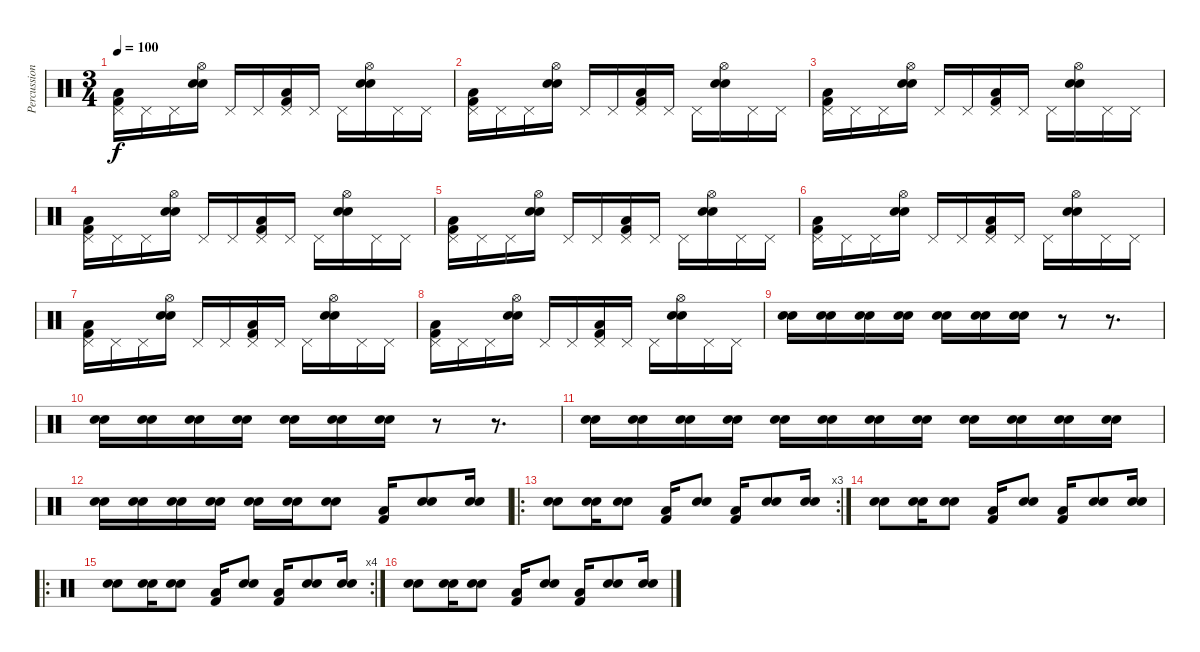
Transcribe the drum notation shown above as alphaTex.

\track ("Percussions" "Percussion") {instrument percussion}
\staff {score}
\articulation defaults
\ts (3 4)
\tempo 100
\clef neutral
\ks c
("Pedal Hi-Hat (hit)" "Kick (hit) 2" "Low Floor Tom (hit)").16{dy f} "Pedal Hi-Hat (hit)".16 "Pedal Hi-Hat (hit)".16 ("Hi-Hat (open)" "Snare (hit) 2" "Electric Snare (hit)").16 "Pedal Hi-Hat (hit)".16 "Pedal Hi-Hat (hit)".16 ("Pedal Hi-Hat (hit)" "Kick (hit) 2" "Low Floor Tom (hit)").16 "Pedal Hi-Hat (hit)".16 "Pedal Hi-Hat (hit)".16 ("Hi-Hat (open)" "Snare (hit) 2" "Electric Snare (hit)").16 "Pedal Hi-Hat (hit)".16 "Pedal Hi-Hat (hit)".16 |
("Pedal Hi-Hat (hit)" "Kick (hit) 2" "Low Floor Tom (hit)").16 "Pedal Hi-Hat (hit)".16 "Pedal Hi-Hat (hit)".16 ("Hi-Hat (open)" "Snare (hit) 2" "Electric Snare (hit)").16 "Pedal Hi-Hat (hit)".16 "Pedal Hi-Hat (hit)".16 ("Pedal Hi-Hat (hit)" "Kick (hit) 2" "Low Floor Tom (hit)").16 "Pedal Hi-Hat (hit)".16 "Pedal Hi-Hat (hit)".16 ("Hi-Hat (open)" "Snare (hit) 2" "Electric Snare (hit)").16 "Pedal Hi-Hat (hit)".16 "Pedal Hi-Hat (hit)".16 |
("Pedal Hi-Hat (hit)" "Kick (hit) 2" "Low Floor Tom (hit)").16 "Pedal Hi-Hat (hit)".16 "Pedal Hi-Hat (hit)".16 ("Hi-Hat (open)" "Snare (hit) 2" "Electric Snare (hit)").16 "Pedal Hi-Hat (hit)".16 "Pedal Hi-Hat (hit)".16 ("Pedal Hi-Hat (hit)" "Kick (hit) 2" "Low Floor Tom (hit)").16 "Pedal Hi-Hat (hit)".16 "Pedal Hi-Hat (hit)".16 ("Hi-Hat (open)" "Snare (hit) 2" "Electric Snare (hit)").16 "Pedal Hi-Hat (hit)".16 "Pedal Hi-Hat (hit)".16 |
("Pedal Hi-Hat (hit)" "Kick (hit) 2" "Low Floor Tom (hit)").16 "Pedal Hi-Hat (hit)".16 "Pedal Hi-Hat (hit)".16 ("Hi-Hat (open)" "Snare (hit) 2" "Electric Snare (hit)").16 "Pedal Hi-Hat (hit)".16 "Pedal Hi-Hat (hit)".16 ("Pedal Hi-Hat (hit)" "Kick (hit) 2" "Low Floor Tom (hit)").16 "Pedal Hi-Hat (hit)".16 "Pedal Hi-Hat (hit)".16 ("Hi-Hat (open)" "Snare (hit) 2" "Electric Snare (hit)").16 "Pedal Hi-Hat (hit)".16 "Pedal Hi-Hat (hit)".16 |
("Pedal Hi-Hat (hit)" "Kick (hit) 2" "Low Floor Tom (hit)").16 "Pedal Hi-Hat (hit)".16 "Pedal Hi-Hat (hit)".16 ("Hi-Hat (open)" "Snare (hit) 2" "Electric Snare (hit)").16 "Pedal Hi-Hat (hit)".16 "Pedal Hi-Hat (hit)".16 ("Pedal Hi-Hat (hit)" "Kick (hit) 2" "Low Floor Tom (hit)").16 "Pedal Hi-Hat (hit)".16 "Pedal Hi-Hat (hit)".16 ("Hi-Hat (open)" "Snare (hit) 2" "Electric Snare (hit)").16 "Pedal Hi-Hat (hit)".16 "Pedal Hi-Hat (hit)".16 |
("Pedal Hi-Hat (hit)" "Kick (hit) 2" "Low Floor Tom (hit)").16 "Pedal Hi-Hat (hit)".16 "Pedal Hi-Hat (hit)".16 ("Hi-Hat (open)" "Snare (hit) 2" "Electric Snare (hit)").16 "Pedal Hi-Hat (hit)".16 "Pedal Hi-Hat (hit)".16 ("Pedal Hi-Hat (hit)" "Kick (hit) 2" "Low Floor Tom (hit)").16 "Pedal Hi-Hat (hit)".16 "Pedal Hi-Hat (hit)".16 ("Hi-Hat (open)" "Snare (hit) 2" "Electric Snare (hit)").16 "Pedal Hi-Hat (hit)".16 "Pedal Hi-Hat (hit)".16 |
("Pedal Hi-Hat (hit)" "Kick (hit) 2" "Low Floor Tom (hit)").16 "Pedal Hi-Hat (hit)".16 "Pedal Hi-Hat (hit)".16 ("Hi-Hat (open)" "Snare (hit) 2" "Electric Snare (hit)").16 "Pedal Hi-Hat (hit)".16 "Pedal Hi-Hat (hit)".16 ("Pedal Hi-Hat (hit)" "Kick (hit) 2" "Low Floor Tom (hit)").16 "Pedal Hi-Hat (hit)".16 "Pedal Hi-Hat (hit)".16 ("Hi-Hat (open)" "Snare (hit) 2" "Electric Snare (hit)").16 "Pedal Hi-Hat (hit)".16 "Pedal Hi-Hat (hit)".16 |
("Pedal Hi-Hat (hit)" "Kick (hit) 2" "Low Floor Tom (hit)").16 "Pedal Hi-Hat (hit)".16 "Pedal Hi-Hat (hit)".16 ("Hi-Hat (open)" "Snare (hit) 2" "Electric Snare (hit)").16 "Pedal Hi-Hat (hit)".16 "Pedal Hi-Hat (hit)".16 ("Pedal Hi-Hat (hit)" "Kick (hit) 2" "Low Floor Tom (hit)").16 "Pedal Hi-Hat (hit)".16 "Pedal Hi-Hat (hit)".16 ("Hi-Hat (open)" "Snare (hit) 2" "Electric Snare (hit)").16 "Pedal Hi-Hat (hit)".16 "Pedal Hi-Hat (hit)".16 |
("Snare (hit) 2" "Electric Snare (hit)").16 ("Snare (hit) 2" "Electric Snare (hit)").16 ("Snare (hit) 2" "Electric Snare (hit)").16 ("Snare (hit) 2" "Electric Snare (hit)").16 ("Snare (hit) 2" "Electric Snare (hit)").16 ("Snare (hit) 2" "Electric Snare (hit)").16 ("Snare (hit) 2" "Electric Snare (hit)").16 r.8 r.8{d} |
("Snare (hit) 2" "Electric Snare (hit)").16 ("Snare (hit) 2" "Electric Snare (hit)").16 ("Snare (hit) 2" "Electric Snare (hit)").16 ("Snare (hit) 2" "Electric Snare (hit)").16 ("Snare (hit) 2" "Electric Snare (hit)").16 ("Snare (hit) 2" "Electric Snare (hit)").16 ("Snare (hit) 2" "Electric Snare (hit)").16 r.8 r.8{d} |
("Snare (hit) 2" "Electric Snare (hit)").16 ("Snare (hit) 2" "Electric Snare (hit)").16 ("Snare (hit) 2" "Electric Snare (hit)").16 ("Snare (hit) 2" "Electric Snare (hit)").16 ("Snare (hit) 2" "Electric Snare (hit)").16 ("Snare (hit) 2" "Electric Snare (hit)").16 ("Snare (hit) 2" "Electric Snare (hit)").16 ("Snare (hit) 2" "Electric Snare (hit)").16 ("Snare (hit) 2" "Electric Snare (hit)").16 ("Snare (hit) 2" "Electric Snare (hit)").16 ("Snare (hit) 2" "Electric Snare (hit)").16 ("Snare (hit) 2" "Electric Snare (hit)").16 |
("Snare (hit) 2" "Electric Snare (hit)").16 ("Snare (hit) 2" "Electric Snare (hit)").16 ("Snare (hit) 2" "Electric Snare (hit)").16 ("Snare (hit) 2" "Electric Snare (hit)").16 ("Snare (hit) 2" "Electric Snare (hit)").16 ("Snare (hit) 2" "Electric Snare (hit)").16 ("Snare (hit) 2" "Electric Snare (hit)").8 ("Kick (hit) 2" "Low Floor Tom (hit)").16 ("Snare (hit) 2" "Electric Snare (hit)").8 ("Snare (hit) 2" "Electric Snare (hit)").16 |
\ro
\rc 3
("Snare (hit) 2" "Electric Snare (hit)").8 ("Snare (hit) 2" "Electric Snare (hit)").16 ("Snare (hit) 2" "Electric Snare (hit)").8 ("Kick (hit) 2" "Low Floor Tom (hit)").16 ("Snare (hit) 2" "Electric Snare (hit)").8 ("Kick (hit) 2" "Low Floor Tom (hit)").16 ("Snare (hit) 2" "Electric Snare (hit)").8 ("Snare (hit) 2" "Electric Snare (hit)").16 |
("Snare (hit) 2" "Electric Snare (hit)").8 ("Snare (hit) 2" "Electric Snare (hit)").16 ("Snare (hit) 2" "Electric Snare (hit)").8 ("Kick (hit) 2" "Low Floor Tom (hit)").16 ("Snare (hit) 2" "Electric Snare (hit)").8 ("Kick (hit) 2" "Low Floor Tom (hit)").16 ("Snare (hit) 2" "Electric Snare (hit)").8 ("Snare (hit) 2" "Electric Snare (hit)").16 |
\ro
\rc 4
("Snare (hit) 2" "Electric Snare (hit)").8 ("Snare (hit) 2" "Electric Snare (hit)").16 ("Snare (hit) 2" "Electric Snare (hit)").8 ("Kick (hit) 2" "Low Floor Tom (hit)").16 ("Snare (hit) 2" "Electric Snare (hit)").8 ("Kick (hit) 2" "Low Floor Tom (hit)").16 ("Snare (hit) 2" "Electric Snare (hit)").8 ("Snare (hit) 2" "Electric Snare (hit)").16 |
("Snare (hit) 2" "Electric Snare (hit)").8 ("Snare (hit) 2" "Electric Snare (hit)").16 ("Snare (hit) 2" "Electric Snare (hit)").8 ("Kick (hit) 2" "Low Floor Tom (hit)").16 ("Snare (hit) 2" "Electric Snare (hit)").8 ("Kick (hit) 2" "Low Floor Tom (hit)").16 ("Snare (hit) 2" "Electric Snare (hit)").8 ("Snare (hit) 2" "Electric Snare (hit)").16
